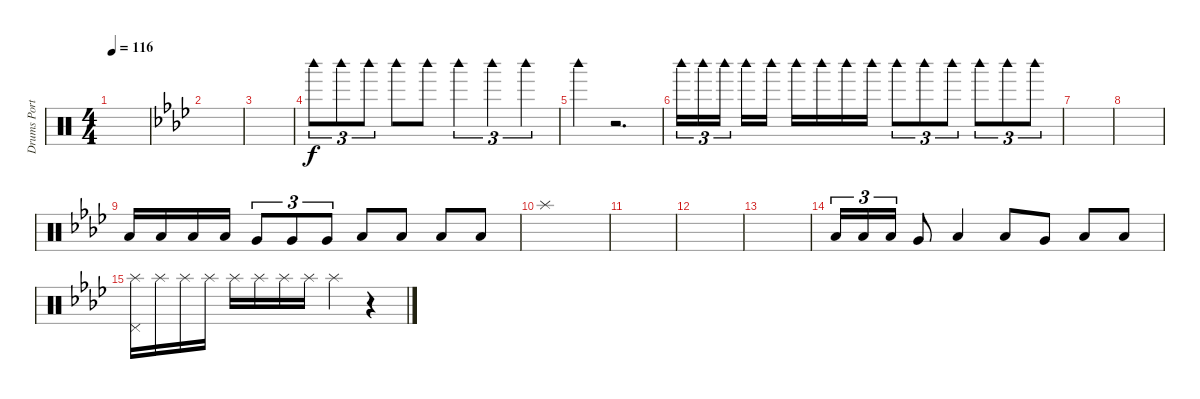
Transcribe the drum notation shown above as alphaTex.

\track ("Drums Portnoy" "Drums Port") {instrument percussion}
\staff {score}
\articulation defaults
\ts (4 4)
\tempo 116
\clef neutral
\ks c
|
\ks ab
|
|
"Woodblock high (hit)".8{tu (3 2)} "Woodblock high (hit)".8{tu (3 2)} "Woodblock high (hit)".8{tu (3 2)} "Woodblock high (hit)".8 "Woodblock high (hit)".8 "Woodblock high (hit)".4{tu (3 2)} "Woodblock high (hit)".4{tu (3 2)} "Woodblock high (hit)".4{tu (3 2)} |
"Woodblock high (hit)".4 r.2{d} |
"Woodblock high (hit)".16{tu (3 2)} "Woodblock high (hit)".16{tu (3 2)} "Woodblock high (hit)".16{tu (3 2) beam splitsecondary} "Woodblock high (hit)".16 "Woodblock high (hit)".16 "Woodblock high (hit)".16 "Woodblock high (hit)".16 "Woodblock high (hit)".16 "Woodblock high (hit)".16 "Woodblock high (hit)".8{tu (3 2)} "Woodblock high (hit)".8{tu (3 2)} "Woodblock high (hit)".8{tu (3 2)} "Woodblock high (hit)".8{tu (3 2)} "Woodblock high (hit)".8{tu (3 2)} "Woodblock high (hit)".8{tu (3 2)} |
|
|
"Low Tom (hit)".16 "Low Tom (hit)".16 "Low Tom (hit)".16 "Low Tom (hit)".16 "Very Low Tom (hit)".8{tu (3 2)} "Very Low Tom (hit)".8{tu (3 2)} "Very Low Tom (hit)".8{tu (3 2)} "Low Floor Tom (hit)".8 "Low Floor Tom (hit)".8 "Low Floor Tom (hit)".8 "Low Floor Tom (hit)".8 |
"Splash (hit)".1 |
|
|
|
"Low Tom (hit)".16{tu (3 2)} "Low Tom (hit)".16{tu (3 2)} "Low Tom (hit)".16{tu (3 2)} "Very Low Tom (hit)".8 "Low Floor Tom (hit)".4 "Low Tom (hit)".8 "Very Low Tom (hit)".8 "Low Floor Tom (hit)".8 "Low Floor Tom (hit)".8 |
("Pedal Hi-Hat (hit)" "Splash (hit)").16 "Splash (hit)".16 "Splash (hit)".16 "Splash (hit)".16 "Splash (hit)".16 "Splash (hit)".16 "Splash (hit)".16 "Splash (hit)".16 "Splash (hit)".4 r.4
